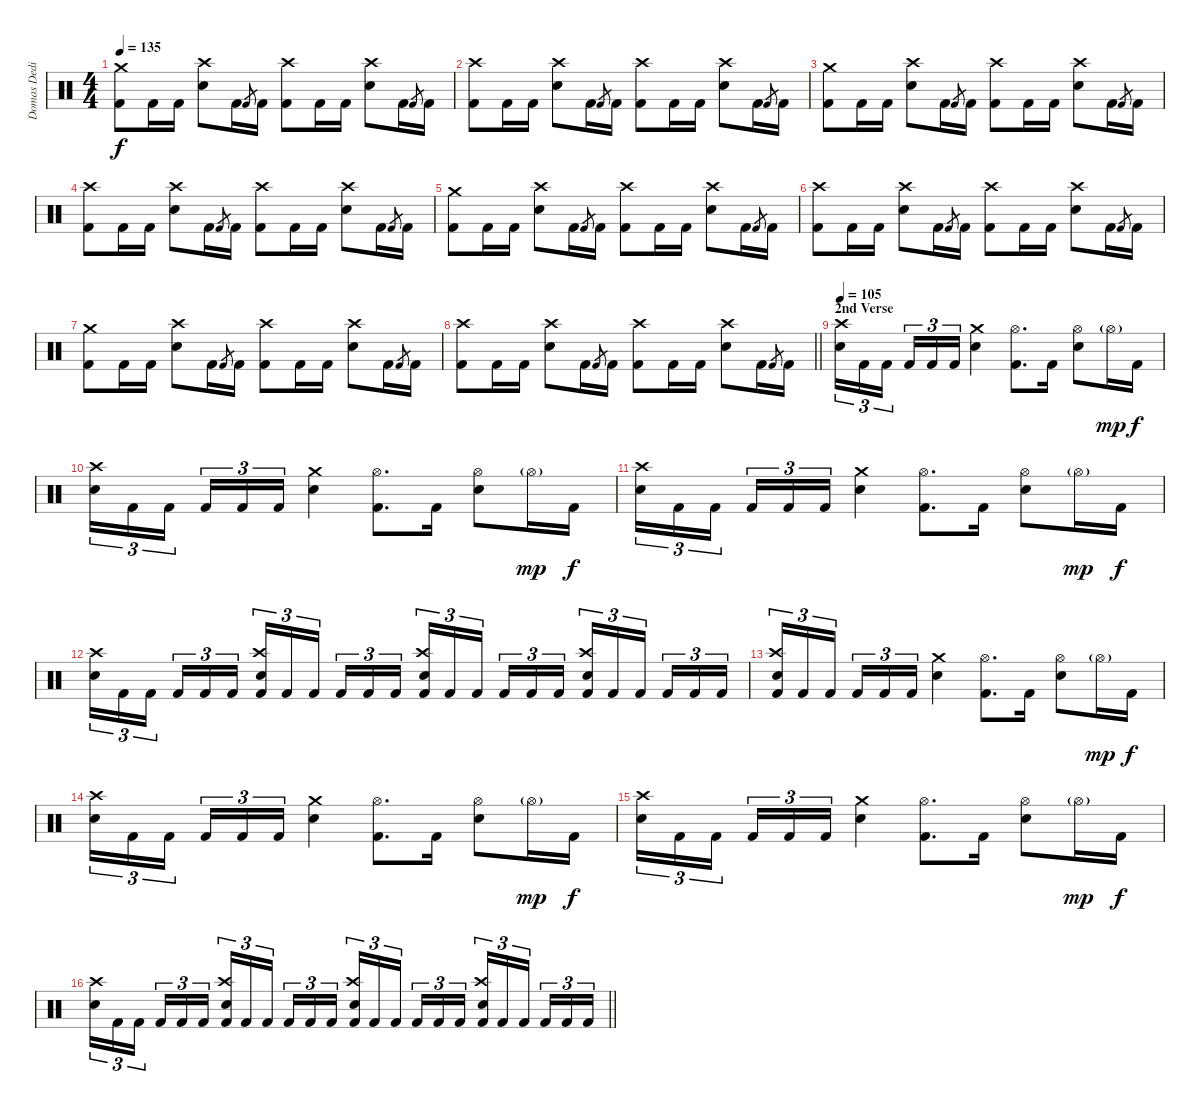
\track ("Domas Dedinas" "Domas Dedi") {instrument percussion}
\staff {score}
\articulation defaults
\ts (4 4)
\tempo 135
\clef neutral
\ks c
("Crash medium (hit)" "Kick (hit) 2").8{dy f} "Kick (hit) 2".16 "Kick (hit) 2".16 ("Crash high (hit)" "Snare (hit) 2").8 "Kick (hit) 2".16 "Kick (hit) 2".8{gr} "Kick (hit) 2".16 ("Crash high (hit)" "Kick (hit) 2").8 "Kick (hit) 2".16 "Kick (hit) 2".16 ("Crash high (hit)" "Snare (hit) 2").8 "Kick (hit) 2".16 "Kick (hit) 2".8{gr} "Kick (hit) 2".16 |
("Crash high (hit)" "Kick (hit) 2").8 "Kick (hit) 2".16 "Kick (hit) 2".16 ("Crash high (hit)" "Snare (hit) 2").8 "Kick (hit) 2".16 "Kick (hit) 2".8{gr} "Kick (hit) 2".16 ("Crash high (hit)" "Kick (hit) 2").8 "Kick (hit) 2".16 "Kick (hit) 2".16 ("Crash high (hit)" "Snare (hit) 2").8 "Kick (hit) 2".16 "Kick (hit) 2".8{gr} "Kick (hit) 2".16 |
("Crash medium (hit)" "Kick (hit) 2").8 "Kick (hit) 2".16 "Kick (hit) 2".16 ("Crash high (hit)" "Snare (hit) 2").8 "Kick (hit) 2".16 "Kick (hit) 2".8{gr} "Kick (hit) 2".16 ("Crash high (hit)" "Kick (hit) 2").8 "Kick (hit) 2".16 "Kick (hit) 2".16 ("Crash high (hit)" "Snare (hit) 2").8 "Kick (hit) 2".16 "Kick (hit) 2".8{gr} "Kick (hit) 2".16 |
("Crash high (hit)" "Kick (hit) 2").8 "Kick (hit) 2".16 "Kick (hit) 2".16 ("Crash high (hit)" "Snare (hit) 2").8 "Kick (hit) 2".16 "Kick (hit) 2".8{gr} "Kick (hit) 2".16 ("Crash high (hit)" "Kick (hit) 2").8 "Kick (hit) 2".16 "Kick (hit) 2".16 ("Crash high (hit)" "Snare (hit) 2").8 "Kick (hit) 2".16 "Kick (hit) 2".8{gr} "Kick (hit) 2".16 |
("Crash medium (hit)" "Kick (hit) 2").8 "Kick (hit) 2".16 "Kick (hit) 2".16 ("Crash high (hit)" "Snare (hit) 2").8 "Kick (hit) 2".16 "Kick (hit) 2".8{gr} "Kick (hit) 2".16 ("Crash high (hit)" "Kick (hit) 2").8 "Kick (hit) 2".16 "Kick (hit) 2".16 ("Crash high (hit)" "Snare (hit) 2").8 "Kick (hit) 2".16 "Kick (hit) 2".8{gr} "Kick (hit) 2".16 |
("Crash high (hit)" "Kick (hit) 2").8 "Kick (hit) 2".16 "Kick (hit) 2".16 ("Crash high (hit)" "Snare (hit) 2").8 "Kick (hit) 2".16 "Kick (hit) 2".8{gr} "Kick (hit) 2".16 ("Crash high (hit)" "Kick (hit) 2").8 "Kick (hit) 2".16 "Kick (hit) 2".16 ("Crash high (hit)" "Snare (hit) 2").8 "Kick (hit) 2".16 "Kick (hit) 2".8{gr} "Kick (hit) 2".16 |
("Crash medium (hit)" "Kick (hit) 2").8 "Kick (hit) 2".16 "Kick (hit) 2".16 ("Crash high (hit)" "Snare (hit) 2").8 "Kick (hit) 2".16 "Kick (hit) 2".8{gr} "Kick (hit) 2".16 ("Crash high (hit)" "Kick (hit) 2").8 "Kick (hit) 2".16 "Kick (hit) 2".16 ("Crash high (hit)" "Snare (hit) 2").8 "Kick (hit) 2".16 "Kick (hit) 2".8{gr} "Kick (hit) 2".16 |
\barLineRight lightlight
("Crash high (hit)" "Kick (hit) 2").8 "Kick (hit) 2".16 "Kick (hit) 2".16 ("Crash high (hit)" "Snare (hit) 2").8 "Kick (hit) 2".16 "Kick (hit) 2".8{gr} "Kick (hit) 2".16 ("Crash high (hit)" "Kick (hit) 2").8 "Kick (hit) 2".16 "Kick (hit) 2".16 ("Crash high (hit)" "Snare (hit) 2").8 "Kick (hit) 2".16 "Kick (hit) 2".8{gr} "Kick (hit) 2".16 |
\section ("" "2nd Verse")
\tempo 105
("Crash high (hit)" "Snare (hit) 2").16{tu (3 2)} "Kick (hit) 2".16{tu (3 2)} "Kick (hit) 2".16{tu (3 2) beam splitsecondary} "Kick (hit) 2".16{tu (3 2)} "Kick (hit) 2".16{tu (3 2)} "Kick (hit) 2".16{tu (3 2)} ("Crash medium (hit)" "Snare (hit) 2").4 ("Hi-Hat (open)" "Kick (hit) 2").8{d} "Kick (hit) 2".16 ("Hi-Hat (open)" "Snare (hit) 2").8 "Hi-Hat (open)"{g}.16{dy mp} "Kick (hit) 2".16{dy f} |
("Crash high (hit)" "Snare (hit) 2").16{tu (3 2)} "Kick (hit) 2".16{tu (3 2)} "Kick (hit) 2".16{tu (3 2) beam splitsecondary} "Kick (hit) 2".16{tu (3 2)} "Kick (hit) 2".16{tu (3 2)} "Kick (hit) 2".16{tu (3 2)} ("Crash medium (hit)" "Snare (hit) 2").4 ("Hi-Hat (open)" "Kick (hit) 2").8{d} "Kick (hit) 2".16 ("Hi-Hat (open)" "Snare (hit) 2").8 "Hi-Hat (open)"{g}.16{dy mp} "Kick (hit) 2".16{dy f} |
("Crash high (hit)" "Snare (hit) 2").16{tu (3 2)} "Kick (hit) 2".16{tu (3 2)} "Kick (hit) 2".16{tu (3 2) beam splitsecondary} "Kick (hit) 2".16{tu (3 2)} "Kick (hit) 2".16{tu (3 2)} "Kick (hit) 2".16{tu (3 2)} ("Crash medium (hit)" "Snare (hit) 2").4 ("Hi-Hat (open)" "Kick (hit) 2").8{d} "Kick (hit) 2".16 ("Hi-Hat (open)" "Snare (hit) 2").8 "Hi-Hat (open)"{g}.16{dy mp} "Kick (hit) 2".16{dy f} |
("Crash high (hit)" "Snare (hit) 2").16{tu (3 2)} "Kick (hit) 2".16{tu (3 2)} "Kick (hit) 2".16{tu (3 2) beam splitsecondary} "Kick (hit) 2".16{tu (3 2)} "Kick (hit) 2".16{tu (3 2)} "Kick (hit) 2".16{tu (3 2)} ("Crash high (hit)" "Snare (hit) 2" "Kick (hit) 2").16{tu (3 2)} "Kick (hit) 2".16{tu (3 2)} "Kick (hit) 2".16{tu (3 2) beam splitsecondary} "Kick (hit) 2".16{tu (3 2)} "Kick (hit) 2".16{tu (3 2)} "Kick (hit) 2".16{tu (3 2)} ("Crash high (hit)" "Snare (hit) 2" "Kick (hit) 2").16{tu (3 2)} "Kick (hit) 2".16{tu (3 2)} "Kick (hit) 2".16{tu (3 2) beam splitsecondary} "Kick (hit) 2".16{tu (3 2)} "Kick (hit) 2".16{tu (3 2)} "Kick (hit) 2".16{tu (3 2)} ("Crash high (hit)" "Snare (hit) 2" "Kick (hit) 2").16{tu (3 2)} "Kick (hit) 2".16{tu (3 2)} "Kick (hit) 2".16{tu (3 2) beam splitsecondary} "Kick (hit) 2".16{tu (3 2)} "Kick (hit) 2".16{tu (3 2)} "Kick (hit) 2".16{tu (3 2)} |
("Crash high (hit)" "Snare (hit) 2" "Kick (hit) 2").16{tu (3 2)} "Kick (hit) 2".16{tu (3 2)} "Kick (hit) 2".16{tu (3 2) beam splitsecondary} "Kick (hit) 2".16{tu (3 2)} "Kick (hit) 2".16{tu (3 2)} "Kick (hit) 2".16{tu (3 2)} ("Crash medium (hit)" "Snare (hit) 2").4 ("Hi-Hat (open)" "Kick (hit) 2").8{d} "Kick (hit) 2".16 ("Hi-Hat (open)" "Snare (hit) 2").8 "Hi-Hat (open)"{g}.16{dy mp} "Kick (hit) 2".16{dy f} |
("Crash high (hit)" "Snare (hit) 2").16{tu (3 2)} "Kick (hit) 2".16{tu (3 2)} "Kick (hit) 2".16{tu (3 2) beam splitsecondary} "Kick (hit) 2".16{tu (3 2)} "Kick (hit) 2".16{tu (3 2)} "Kick (hit) 2".16{tu (3 2)} ("Crash medium (hit)" "Snare (hit) 2").4 ("Hi-Hat (open)" "Kick (hit) 2").8{d} "Kick (hit) 2".16 ("Hi-Hat (open)" "Snare (hit) 2").8 "Hi-Hat (open)"{g}.16{dy mp} "Kick (hit) 2".16{dy f} |
("Crash high (hit)" "Snare (hit) 2").16{tu (3 2)} "Kick (hit) 2".16{tu (3 2)} "Kick (hit) 2".16{tu (3 2) beam splitsecondary} "Kick (hit) 2".16{tu (3 2)} "Kick (hit) 2".16{tu (3 2)} "Kick (hit) 2".16{tu (3 2)} ("Crash medium (hit)" "Snare (hit) 2").4 ("Hi-Hat (open)" "Kick (hit) 2").8{d} "Kick (hit) 2".16 ("Hi-Hat (open)" "Snare (hit) 2").8 "Hi-Hat (open)"{g}.16{dy mp} "Kick (hit) 2".16{dy f} |
\barLineRight lightlight
("Crash high (hit)" "Snare (hit) 2").16{tu (3 2)} "Kick (hit) 2".16{tu (3 2)} "Kick (hit) 2".16{tu (3 2) beam splitsecondary} "Kick (hit) 2".16{tu (3 2)} "Kick (hit) 2".16{tu (3 2)} "Kick (hit) 2".16{tu (3 2)} ("Crash high (hit)" "Snare (hit) 2" "Kick (hit) 2").16{tu (3 2)} "Kick (hit) 2".16{tu (3 2)} "Kick (hit) 2".16{tu (3 2) beam splitsecondary} "Kick (hit) 2".16{tu (3 2)} "Kick (hit) 2".16{tu (3 2)} "Kick (hit) 2".16{tu (3 2)} ("Crash high (hit)" "Snare (hit) 2" "Kick (hit) 2").16{tu (3 2)} "Kick (hit) 2".16{tu (3 2)} "Kick (hit) 2".16{tu (3 2) beam splitsecondary} "Kick (hit) 2".16{tu (3 2)} "Kick (hit) 2".16{tu (3 2)} "Kick (hit) 2".16{tu (3 2)} ("Crash high (hit)" "Snare (hit) 2" "Kick (hit) 2").16{tu (3 2)} "Kick (hit) 2".16{tu (3 2)} "Kick (hit) 2".16{tu (3 2) beam splitsecondary} "Kick (hit) 2".16{tu (3 2)} "Kick (hit) 2".16{tu (3 2)} "Kick (hit) 2".16{tu (3 2)}
